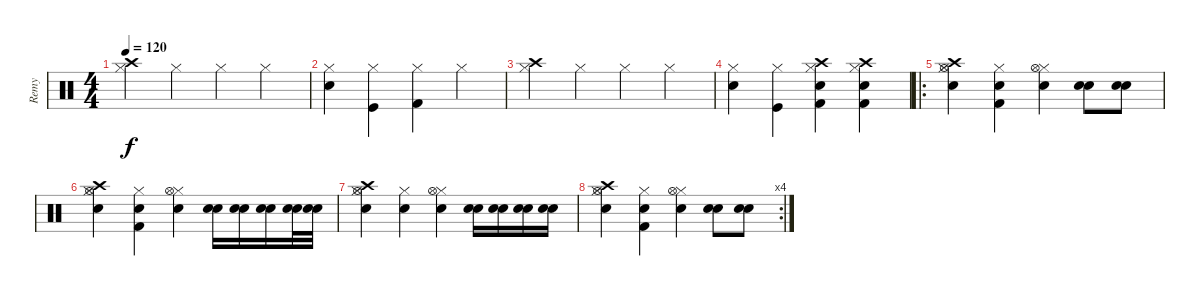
\track ("Remy" "Remy") {instrument percussion}
\staff {score}
\articulation defaults
\ts (4 4)
\tempo 120
\clef neutral
\ks c
("Crash high (hit)" "Hi-Hat (closed)").4{dy f} "Hi-Hat (closed)".4 "Hi-Hat (closed)".4 "Hi-Hat (closed)".4 |
("Snare (hit) 2" "Hi-Hat (closed)").4 ("Kick (hit)" "Hi-Hat (closed)").4 ("Kick (hit) 2" "Hi-Hat (closed)").4 "Hi-Hat (closed)".4 |
("Crash high (hit)" "Hi-Hat (closed)").4 "Hi-Hat (closed)".4 "Hi-Hat (closed)".4 "Hi-Hat (closed)".4 |
("Snare (hit) 2" "Hi-Hat (closed)").4 ("Kick (hit)" "Hi-Hat (closed)").4 ("Kick (hit) 2" "Snare (hit) 2" "Hi-Hat (closed)" "Crash high (hit)").4 ("Kick (hit) 2" "Snare (hit) 2" "Hi-Hat (closed)" "Crash high (hit)").4 |
\ro
("Hi-Hat (closed)" "Crash high (hit)" "Hi-Hat (open)" "Snare (hit) 2").4 ("Hi-Hat (closed)" "Kick (hit) 2" "Snare (hit) 2").4 ("Hi-Hat (closed)" "Snare (hit) 2" "Hi-Hat (open)").4 ("Snare (hit) 2" "Snare (hit) 2").8 ("Snare (hit) 2" "Snare (hit) 2").8 |
("Hi-Hat (closed)" "Crash high (hit)" "Hi-Hat (open)" "Snare (hit) 2").4 ("Hi-Hat (closed)" "Kick (hit) 2" "Snare (hit) 2").4 ("Hi-Hat (closed)" "Snare (hit) 2" "Hi-Hat (open)").4 ("Snare (hit) 2" "Snare (hit) 2").16 ("Snare (hit) 2" "Snare (hit) 2").16 ("Snare (hit) 2" "Snare (hit) 2").16 ("Snare (hit) 2" "Snare (hit) 2").32 ("Snare (hit) 2" "Snare (hit) 2").32 |
("Hi-Hat (closed)" "Crash high (hit)" "Hi-Hat (open)" "Snare (hit) 2").4 ("Hi-Hat (closed)" "Snare (hit) 2").4 ("Hi-Hat (closed)" "Snare (hit) 2" "Hi-Hat (open)").4 ("Snare (hit) 2" "Snare (hit) 2").16 ("Snare (hit) 2" "Snare (hit) 2").16 ("Snare (hit) 2" "Snare (hit) 2").16 ("Snare (hit) 2" "Snare (hit) 2").16 |
\rc 4
("Hi-Hat (closed)" "Crash high (hit)" "Hi-Hat (open)" "Snare (hit) 2").4 ("Hi-Hat (closed)" "Kick (hit) 2" "Snare (hit) 2").4 ("Hi-Hat (closed)" "Snare (hit) 2" "Hi-Hat (open)").4 ("Snare (hit) 2" "Snare (hit) 2").8 ("Snare (hit) 2" "Snare (hit) 2").8
